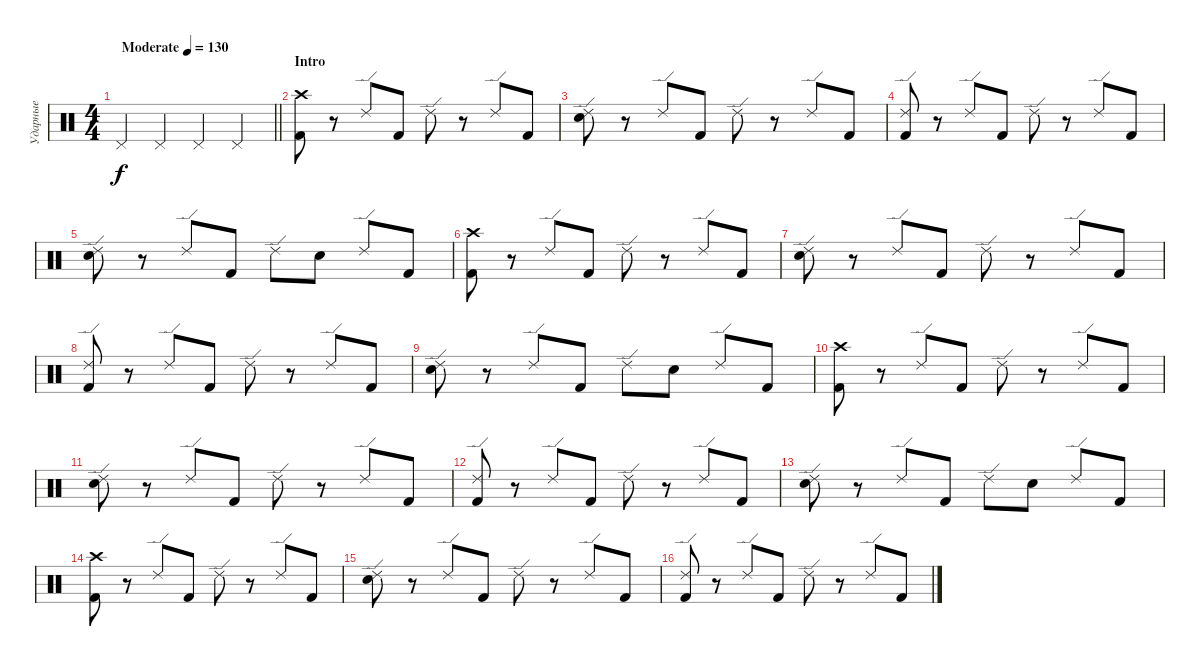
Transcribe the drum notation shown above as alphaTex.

\track ("Ударные" "Ударные") {instrument percussion}
\staff {score}
\articulation defaults
\ts (4 4)
\tempo (130 "Moderate")
\clef neutral
\barLineRight lightlight
\ks c "Pedal Hi-Hat (hit)".4{dy f} "Pedal Hi-Hat (hit)".4 "Pedal Hi-Hat (hit)".4 "Pedal Hi-Hat (hit)".4
|
\section ("" "Intro")
("Crash high (hit)" "Kick (hit) 2").8 r.8 "Ride (edge) 2".8 "Kick (hit) 2".8 "Ride (edge) 2".8 r.8 "Ride (edge) 2".8 "Kick (hit) 2".8 |
("Ride (edge) 2" "Electric Snare (hit)").8 r.8 "Ride (edge) 2".8 "Kick (hit) 2".8 "Ride (edge) 2".8 r.8 "Ride (edge) 2".8 "Kick (hit) 2".8 |
("Ride (edge) 2" "Kick (hit) 2").8 r.8 "Ride (edge) 2".8 "Kick (hit) 2".8 "Ride (edge) 2".8 r.8 "Ride (edge) 2".8 "Kick (hit) 2".8 |
("Ride (edge) 2" "Electric Snare (hit)").8 r.8 "Ride (edge) 2".8 "Kick (hit) 2".8 "Ride (edge) 2".8 "Electric Snare (hit)".8 "Ride (edge) 2".8 "Kick (hit) 2".8 |
("Crash high (hit)" "Kick (hit) 2").8 r.8 "Ride (edge) 2".8 "Kick (hit) 2".8 "Ride (edge) 2".8 r.8 "Ride (edge) 2".8 "Kick (hit) 2".8 |
("Ride (edge) 2" "Electric Snare (hit)").8 r.8 "Ride (edge) 2".8 "Kick (hit) 2".8 "Ride (edge) 2".8 r.8 "Ride (edge) 2".8 "Kick (hit) 2".8 |
("Ride (edge) 2" "Kick (hit) 2").8 r.8 "Ride (edge) 2".8 "Kick (hit) 2".8 "Ride (edge) 2".8 r.8 "Ride (edge) 2".8 "Kick (hit) 2".8 |
("Ride (edge) 2" "Electric Snare (hit)").8 r.8 "Ride (edge) 2".8 "Kick (hit) 2".8 "Ride (edge) 2".8 "Electric Snare (hit)".8 "Ride (edge) 2".8 "Kick (hit) 2".8 |
("Crash high (hit)" "Kick (hit) 2").8 r.8 "Ride (edge) 2".8 "Kick (hit) 2".8 "Ride (edge) 2".8 r.8 "Ride (edge) 2".8 "Kick (hit) 2".8 |
("Ride (edge) 2" "Electric Snare (hit)").8 r.8 "Ride (edge) 2".8 "Kick (hit) 2".8 "Ride (edge) 2".8 r.8 "Ride (edge) 2".8 "Kick (hit) 2".8 |
("Ride (edge) 2" "Kick (hit) 2").8 r.8 "Ride (edge) 2".8 "Kick (hit) 2".8 "Ride (edge) 2".8 r.8 "Ride (edge) 2".8 "Kick (hit) 2".8 |
("Ride (edge) 2" "Electric Snare (hit)").8 r.8 "Ride (edge) 2".8 "Kick (hit) 2".8 "Ride (edge) 2".8 "Electric Snare (hit)".8 "Ride (edge) 2".8 "Kick (hit) 2".8 |
("Crash high (hit)" "Kick (hit) 2").8 r.8 "Ride (edge) 2".8 "Kick (hit) 2".8 "Ride (edge) 2".8 r.8 "Ride (edge) 2".8 "Kick (hit) 2".8 |
("Ride (edge) 2" "Electric Snare (hit)").8 r.8 "Ride (edge) 2".8 "Kick (hit) 2".8 "Ride (edge) 2".8 r.8 "Ride (edge) 2".8 "Kick (hit) 2".8 |
("Ride (edge) 2" "Kick (hit) 2").8 r.8 "Ride (edge) 2".8 "Kick (hit) 2".8 "Ride (edge) 2".8 r.8 "Ride (edge) 2".8 "Kick (hit) 2".8
